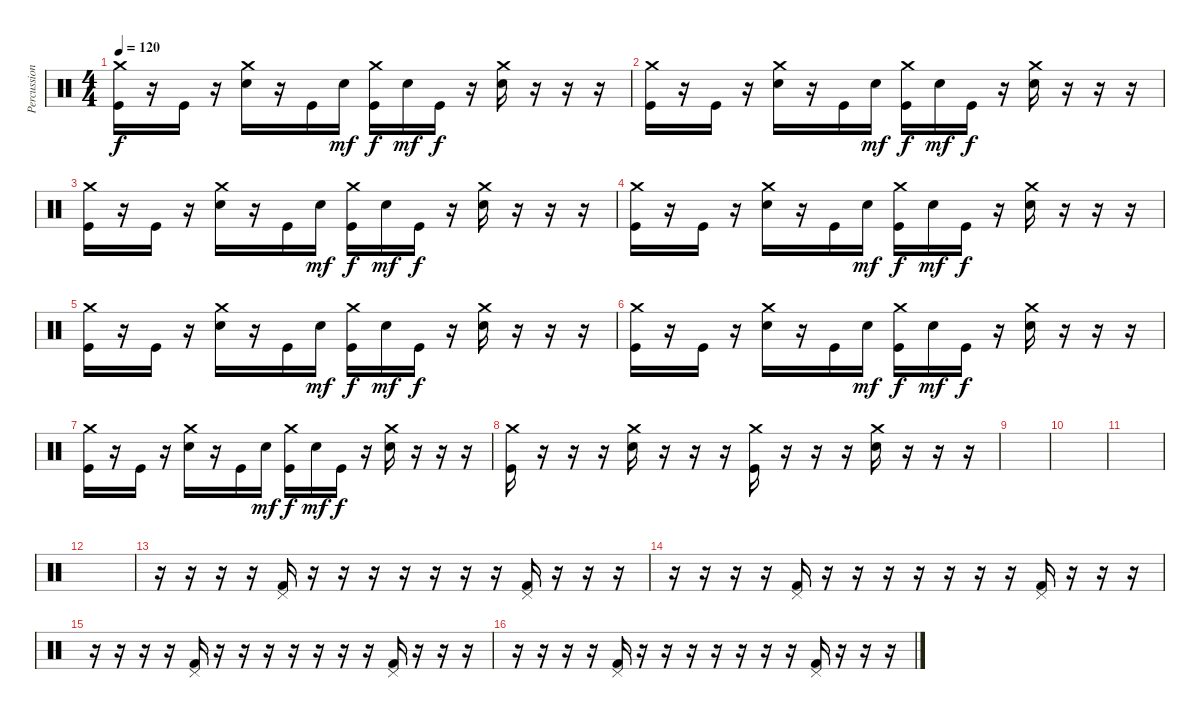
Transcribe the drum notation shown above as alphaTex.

\track ("Percussions" "Percussion") {instrument percussion}
\staff {score}
\articulation defaults
\ts (4 4)
\tempo 120
\clef neutral
\ks c
("Kick (hit)" "Crash medium (hit)").16{dy f} r.16 "Kick (hit)".16 r.16 ("Electric Snare (hit)" "Crash medium (hit)").16 r.16 "Kick (hit)".16 "Electric Snare (hit)".16{dy mf} ("Kick (hit)" "Crash medium (hit)").16{dy f} "Electric Snare (hit)".16{dy mf} "Kick (hit)".16{dy f} r.16 ("Electric Snare (hit)" "Crash medium (hit)").16 r.16 r.16 r.16 |
("Kick (hit)" "Crash medium (hit)").16 r.16 "Kick (hit)".16 r.16 ("Electric Snare (hit)" "Crash medium (hit)").16 r.16 "Kick (hit)".16 "Electric Snare (hit)".16{dy mf} ("Kick (hit)" "Crash medium (hit)").16{dy f} "Electric Snare (hit)".16{dy mf} "Kick (hit)".16{dy f} r.16 ("Electric Snare (hit)" "Crash medium (hit)").16 r.16 r.16 r.16 |
("Kick (hit)" "Crash medium (hit)").16 r.16 "Kick (hit)".16 r.16 ("Electric Snare (hit)" "Crash medium (hit)").16 r.16 "Kick (hit)".16 "Electric Snare (hit)".16{dy mf} ("Kick (hit)" "Crash medium (hit)").16{dy f} "Electric Snare (hit)".16{dy mf} "Kick (hit)".16{dy f} r.16 ("Electric Snare (hit)" "Crash medium (hit)").16 r.16 r.16 r.16 |
("Kick (hit)" "Crash medium (hit)").16 r.16 "Kick (hit)".16 r.16 ("Electric Snare (hit)" "Crash medium (hit)").16 r.16 "Kick (hit)".16 "Electric Snare (hit)".16{dy mf} ("Kick (hit)" "Crash medium (hit)").16{dy f} "Electric Snare (hit)".16{dy mf} "Kick (hit)".16{dy f} r.16 ("Electric Snare (hit)" "Crash medium (hit)").16 r.16 r.16 r.16 |
("Kick (hit)" "Crash medium (hit)").16 r.16 "Kick (hit)".16 r.16 ("Electric Snare (hit)" "Crash medium (hit)").16 r.16 "Kick (hit)".16 "Electric Snare (hit)".16{dy mf} ("Kick (hit)" "Crash medium (hit)").16{dy f} "Electric Snare (hit)".16{dy mf} "Kick (hit)".16{dy f} r.16 ("Electric Snare (hit)" "Crash medium (hit)").16 r.16 r.16 r.16 |
("Kick (hit)" "Crash medium (hit)").16 r.16 "Kick (hit)".16 r.16 ("Electric Snare (hit)" "Crash medium (hit)").16 r.16 "Kick (hit)".16 "Electric Snare (hit)".16{dy mf} ("Kick (hit)" "Crash medium (hit)").16{dy f} "Electric Snare (hit)".16{dy mf} "Kick (hit)".16{dy f} r.16 ("Electric Snare (hit)" "Crash medium (hit)").16 r.16 r.16 r.16 |
("Kick (hit)" "Crash medium (hit)").16 r.16 "Kick (hit)".16 r.16 ("Electric Snare (hit)" "Crash medium (hit)").16 r.16 "Kick (hit)".16 "Electric Snare (hit)".16{dy mf} ("Kick (hit)" "Crash medium (hit)").16{dy f} "Electric Snare (hit)".16{dy mf} "Kick (hit)".16{dy f} r.16 ("Electric Snare (hit)" "Crash medium (hit)").16 r.16 r.16 r.16 |
("Kick (hit)" "Crash medium (hit)").16 r.16 r.16 r.16 ("Electric Snare (hit)" "Crash medium (hit)").16 r.16 r.16 r.16 ("Kick (hit)" "Crash medium (hit)").16 r.16 r.16 r.16 ("Electric Snare (hit)" "Crash medium (hit)").16 r.16 r.16 r.16 |
|
|
|
|
r.16 r.16 r.16 r.16 ("Pedal Hi-Hat (hit)" "Kick (hit) 2").16 r.16 r.16 r.16 r.16 r.16 r.16 r.16 ("Pedal Hi-Hat (hit)" "Kick (hit) 2").16 r.16 r.16 r.16 |
r.16 r.16 r.16 r.16 ("Pedal Hi-Hat (hit)" "Kick (hit) 2").16 r.16 r.16 r.16 r.16 r.16 r.16 r.16 ("Pedal Hi-Hat (hit)" "Kick (hit) 2").16 r.16 r.16 r.16 |
r.16 r.16 r.16 r.16 ("Pedal Hi-Hat (hit)" "Kick (hit) 2").16 r.16 r.16 r.16 r.16 r.16 r.16 r.16 ("Pedal Hi-Hat (hit)" "Kick (hit) 2").16 r.16 r.16 r.16 |
r.16 r.16 r.16 r.16 ("Pedal Hi-Hat (hit)" "Kick (hit) 2").16 r.16 r.16 r.16 r.16 r.16 r.16 r.16 ("Pedal Hi-Hat (hit)" "Kick (hit) 2").16 r.16 r.16 r.16
